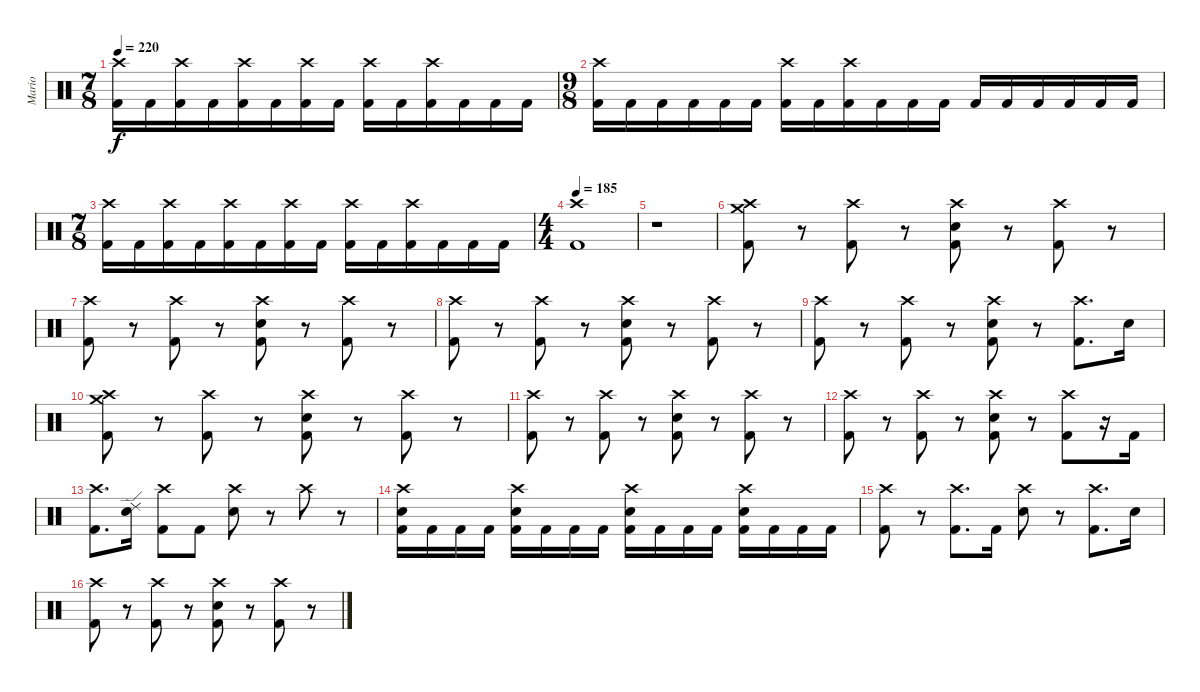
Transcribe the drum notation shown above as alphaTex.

\track ("Mario" "Mario") {instrument percussion}
\staff {score}
\articulation defaults
\ts (7 8)
\tempo 220
\clef neutral
\ks c
("Crash high (hit)" "Kick (hit) 2").16{dy f} "Kick (hit) 2".16 ("Crash high (hit)" "Kick (hit) 2").16 "Kick (hit) 2".16 ("Crash high (hit)" "Kick (hit) 2").16 "Kick (hit) 2".16 ("Crash high (hit)" "Kick (hit) 2").16 "Kick (hit) 2".16 ("Crash high (hit)" "Kick (hit) 2").16 "Kick (hit) 2".16 ("Crash high (hit)" "Kick (hit) 2").16 "Kick (hit) 2".16 "Kick (hit) 2".16 "Kick (hit) 2".16 |
\ts (9 8)
("Crash high (hit)" "Kick (hit) 2").16 "Kick (hit) 2".16 "Kick (hit) 2".16 "Kick (hit) 2".16 "Kick (hit) 2".16 "Kick (hit) 2".16 ("Crash high (hit)" "Kick (hit) 2").16 "Kick (hit) 2".16 ("Crash high (hit)" "Kick (hit) 2").16 "Kick (hit) 2".16 "Kick (hit) 2".16 "Kick (hit) 2".16 "Kick (hit) 2".16 "Kick (hit) 2".16 "Kick (hit) 2".16 "Kick (hit) 2".16 "Kick (hit) 2".16 "Kick (hit) 2".16 |
\ts (7 8)
("Crash high (hit)" "Kick (hit) 2").16 "Kick (hit) 2".16 ("Crash high (hit)" "Kick (hit) 2").16 "Kick (hit) 2".16 ("Crash high (hit)" "Kick (hit) 2").16 "Kick (hit) 2".16 ("Crash high (hit)" "Kick (hit) 2").16 "Kick (hit) 2".16 ("Crash high (hit)" "Kick (hit) 2").16 "Kick (hit) 2".16 ("Crash high (hit)" "Kick (hit) 2").16 "Kick (hit) 2".16 "Kick (hit) 2".16 "Kick (hit) 2".16 |
\ts (4 4)
\tempo 185
("Crash high (hit)" "Kick (hit) 2").1 |
r.1 |
("Crash high (hit)" "Crash medium (hit)" "Kick (hit) 2").8 r.8 ("Crash high (hit)" "Kick (hit) 2").8 r.8 ("Crash high (hit)" "Electric Snare (hit)" "Kick (hit) 2").8 r.8 ("Crash high (hit)" "Kick (hit) 2").8 r.8 |
("Crash high (hit)" "Kick (hit) 2").8 r.8 ("Crash high (hit)" "Kick (hit) 2").8 r.8 ("Crash high (hit)" "Electric Snare (hit)" "Kick (hit) 2").8 r.8 ("Crash high (hit)" "Kick (hit) 2").8 r.8 |
("Crash high (hit)" "Kick (hit) 2").8 r.8 ("Crash high (hit)" "Kick (hit) 2").8 r.8 ("Crash high (hit)" "Electric Snare (hit)" "Kick (hit) 2").8 r.8 ("Crash high (hit)" "Kick (hit) 2").8 r.8 |
("Crash high (hit)" "Kick (hit) 2").8 r.8 ("Crash high (hit)" "Kick (hit) 2").8 r.8 ("Crash high (hit)" "Electric Snare (hit)" "Kick (hit) 2").8 r.8 ("Crash high (hit)" "Kick (hit) 2").8{d} "Electric Snare (hit)".16 |
("Crash high (hit)" "Crash medium (hit)" "Kick (hit) 2").8 r.8 ("Crash high (hit)" "Kick (hit) 2").8 r.8 ("Crash high (hit)" "Electric Snare (hit)" "Kick (hit) 2").8 r.8 ("Crash high (hit)" "Kick (hit) 2").8 r.8 |
("Crash high (hit)" "Kick (hit) 2").8 r.8 ("Crash high (hit)" "Kick (hit) 2").8 r.8 ("Crash high (hit)" "Electric Snare (hit)" "Kick (hit) 2").8 r.8 ("Crash high (hit)" "Kick (hit) 2").8 r.8 |
("Crash high (hit)" "Kick (hit) 2").8 r.8 ("Crash high (hit)" "Kick (hit) 2").8 r.8 ("Crash high (hit)" "Electric Snare (hit)" "Kick (hit) 2").8 r.8 ("Crash high (hit)" "Kick (hit) 2").8 r.16 "Kick (hit) 2".16 |
("Crash high (hit)" "Kick (hit) 2").8{d} ("Ride (edge) 2" "Electric Snare (hit)").16 ("Crash high (hit)" "Kick (hit) 2").8 "Kick (hit) 2".8 ("Crash high (hit)" "Electric Snare (hit)").8 r.8 "Crash high (hit)".8 r.8 |
("Crash high (hit)" "Electric Snare (hit)" "Kick (hit) 2").16 "Kick (hit) 2".16 "Kick (hit) 2".16 "Kick (hit) 2".16 ("Crash high (hit)" "Electric Snare (hit)" "Kick (hit) 2").16 "Kick (hit) 2".16 "Kick (hit) 2".16 "Kick (hit) 2".16 ("Crash high (hit)" "Electric Snare (hit)" "Kick (hit) 2").16 "Kick (hit) 2".16 "Kick (hit) 2".16 "Kick (hit) 2".16 ("Crash high (hit)" "Electric Snare (hit)" "Kick (hit) 2").16 "Kick (hit) 2".16 "Kick (hit) 2".16 "Kick (hit) 2".16 |
("Crash high (hit)" "Kick (hit) 2").8 r.8 ("Crash high (hit)" "Kick (hit) 2").8{d} "Kick (hit) 2".16 ("Crash high (hit)" "Electric Snare (hit)").8 r.8 ("Crash high (hit)" "Kick (hit) 2").8{d} "Electric Snare (hit)".16 |
("Crash high (hit)" "Kick (hit) 2").8 r.8 ("Crash high (hit)" "Kick (hit) 2").8 r.8 ("Crash high (hit)" "Electric Snare (hit)" "Kick (hit) 2").8 r.8 ("Crash high (hit)" "Kick (hit) 2").8 r.8
